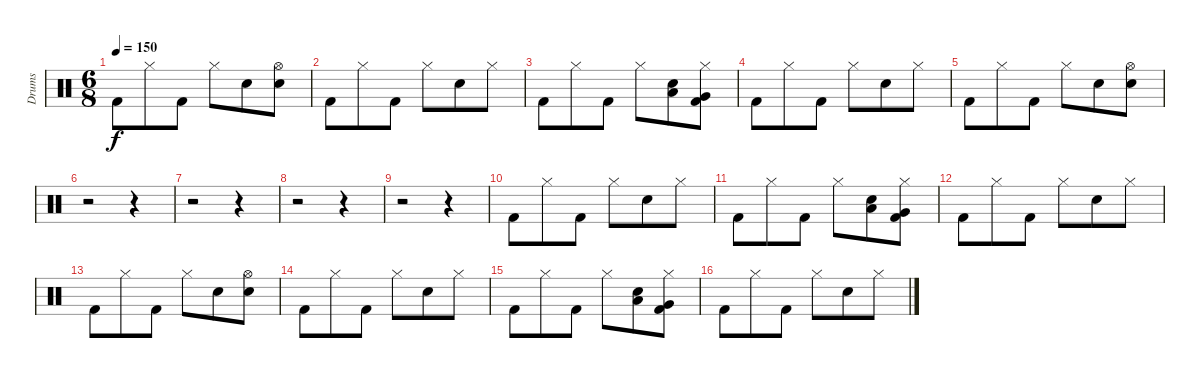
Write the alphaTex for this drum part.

\track ("Drums" "Drums") {mute instrument percussion}
\staff {score}
\articulation defaults
\ts (6 8)
\tempo 150
\clef neutral
\ks c "Kick (hit) 2".8{dy f} "Hi-Hat (closed)".8 "Kick (hit) 2".8 "Hi-Hat (closed)".8 "Electric Snare (hit)".8
("Hi-Hat (open)" "Electric Snare (hit)").8 |
"Kick (hit) 2".8 "Hi-Hat (closed)".8 "Kick (hit) 2".8 "Hi-Hat (closed)".8 "Electric Snare (hit)".8 "Hi-Hat (closed)".8 |
"Kick (hit) 2".8 "Hi-Hat (closed)".8 "Kick (hit) 2".8 "Hi-Hat (closed)".8 ("Low Tom (hit)" "Electric Snare (hit)").8 ("Very Low Tom (hit)" "Hi-Hat (closed)" "Kick (hit) 2").8 |
"Kick (hit) 2".8 "Hi-Hat (closed)".8 "Kick (hit) 2".8 "Hi-Hat (closed)".8 "Electric Snare (hit)".8 "Hi-Hat (closed)".8 |
"Kick (hit) 2".8 "Hi-Hat (closed)".8 "Kick (hit) 2".8 "Hi-Hat (closed)".8 "Electric Snare (hit)".8 ("Hi-Hat (open)" "Electric Snare (hit)").8 |
r.2 r.4 |
r.2 r.4 |
r.2 r.4 |
r.2 r.4 |
"Kick (hit) 2".8 "Hi-Hat (closed)".8 "Kick (hit) 2".8 "Hi-Hat (closed)".8 "Electric Snare (hit)".8 "Hi-Hat (closed)".8 |
"Kick (hit) 2".8 "Hi-Hat (closed)".8 "Kick (hit) 2".8 "Hi-Hat (closed)".8 ("Low Tom (hit)" "Electric Snare (hit)").8 ("Very Low Tom (hit)" "Hi-Hat (closed)" "Kick (hit) 2").8 |
"Kick (hit) 2".8 "Hi-Hat (closed)".8 "Kick (hit) 2".8 "Hi-Hat (closed)".8 "Electric Snare (hit)".8 "Hi-Hat (closed)".8 |
"Kick (hit) 2".8 "Hi-Hat (closed)".8 "Kick (hit) 2".8 "Hi-Hat (closed)".8 "Electric Snare (hit)".8 ("Hi-Hat (open)" "Electric Snare (hit)").8 |
"Kick (hit) 2".8 "Hi-Hat (closed)".8 "Kick (hit) 2".8 "Hi-Hat (closed)".8 "Electric Snare (hit)".8 "Hi-Hat (closed)".8 |
"Kick (hit) 2".8 "Hi-Hat (closed)".8 "Kick (hit) 2".8 "Hi-Hat (closed)".8 ("Low Tom (hit)" "Electric Snare (hit)").8 ("Very Low Tom (hit)" "Hi-Hat (closed)" "Kick (hit) 2").8 |
"Kick (hit) 2".8 "Hi-Hat (closed)".8 "Kick (hit) 2".8 "Hi-Hat (closed)".8 "Electric Snare (hit)".8 "Hi-Hat (closed)".8
